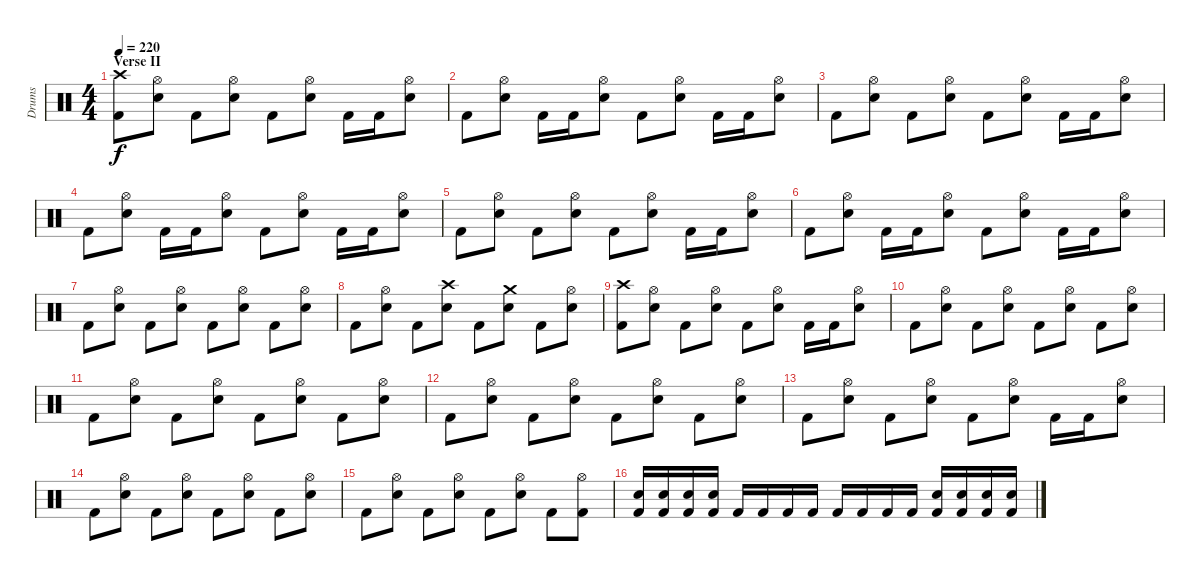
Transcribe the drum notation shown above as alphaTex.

\track ("Drums" "Drums") {instrument percussion}
\staff {score}
\articulation defaults
\ts (4 4)
\section ("" "Verse II")
\tempo 220
\clef neutral
\ks c
("Crash high (hit)" "Kick (hit) 2").8{dy f} ("Hi-Hat (open)" "Snare (hit) 2").8 "Kick (hit) 2".8 ("Hi-Hat (open)" "Snare (hit) 2").8 "Kick (hit) 2".8 ("Hi-Hat (open)" "Snare (hit) 2").8 "Kick (hit) 2".16 "Kick (hit) 2".16 ("Hi-Hat (open)" "Snare (hit) 2").8 |
"Kick (hit) 2".8 ("Hi-Hat (open)" "Snare (hit) 2").8 "Kick (hit) 2".16 "Kick (hit) 2".16 ("Hi-Hat (open)" "Snare (hit) 2").8 "Kick (hit) 2".8 ("Hi-Hat (open)" "Snare (hit) 2").8 "Kick (hit) 2".16 "Kick (hit) 2".16 ("Hi-Hat (open)" "Snare (hit) 2").8 |
"Kick (hit) 2".8 ("Hi-Hat (open)" "Snare (hit) 2").8 "Kick (hit) 2".8 ("Hi-Hat (open)" "Snare (hit) 2").8 "Kick (hit) 2".8 ("Hi-Hat (open)" "Snare (hit) 2").8 "Kick (hit) 2".16 "Kick (hit) 2".16 ("Hi-Hat (open)" "Snare (hit) 2").8 |
"Kick (hit) 2".8 ("Hi-Hat (open)" "Snare (hit) 2").8 "Kick (hit) 2".16 "Kick (hit) 2".16 ("Hi-Hat (open)" "Snare (hit) 2").8 "Kick (hit) 2".8 ("Hi-Hat (open)" "Snare (hit) 2").8 "Kick (hit) 2".16 "Kick (hit) 2".16 ("Hi-Hat (open)" "Snare (hit) 2").8 |
"Kick (hit) 2".8 ("Hi-Hat (open)" "Snare (hit) 2").8 "Kick (hit) 2".8 ("Hi-Hat (open)" "Snare (hit) 2").8 "Kick (hit) 2".8 ("Hi-Hat (open)" "Snare (hit) 2").8 "Kick (hit) 2".16 "Kick (hit) 2".16 ("Hi-Hat (open)" "Snare (hit) 2").8 |
"Kick (hit) 2".8 ("Hi-Hat (open)" "Snare (hit) 2").8 "Kick (hit) 2".16 "Kick (hit) 2".16 ("Hi-Hat (open)" "Snare (hit) 2").8 "Kick (hit) 2".8 ("Hi-Hat (open)" "Snare (hit) 2").8 "Kick (hit) 2".16 "Kick (hit) 2".16 ("Hi-Hat (open)" "Snare (hit) 2").8 |
"Kick (hit) 2".8 ("Hi-Hat (open)" "Snare (hit) 2").8 "Kick (hit) 2".8 ("Hi-Hat (open)" "Snare (hit) 2").8 "Kick (hit) 2".8 ("Hi-Hat (open)" "Snare (hit) 2").8 "Kick (hit) 2".8 ("Hi-Hat (open)" "Snare (hit) 2").8 |
"Kick (hit) 2".8 ("Hi-Hat (open)" "Snare (hit) 2").8 "Kick (hit) 2".8 ("Crash high (hit)" "Snare (hit) 2").8 "Kick (hit) 2".8 ("Crash medium (hit)" "Snare (hit) 2").8 "Kick (hit) 2".8 ("Hi-Hat (open)" "Snare (hit) 2").8 |
("Crash high (hit)" "Kick (hit) 2").8 ("Hi-Hat (open)" "Snare (hit) 2").8 "Kick (hit) 2".8 ("Hi-Hat (open)" "Snare (hit) 2").8 "Kick (hit) 2".8 ("Hi-Hat (open)" "Snare (hit) 2").8 "Kick (hit) 2".16 "Kick (hit) 2".16 ("Hi-Hat (open)" "Snare (hit) 2").8 |
"Kick (hit) 2".8 ("Hi-Hat (open)" "Snare (hit) 2").8 "Kick (hit) 2".8 ("Hi-Hat (open)" "Snare (hit) 2").8 "Kick (hit) 2".8 ("Hi-Hat (open)" "Snare (hit) 2").8 "Kick (hit) 2".8 ("Hi-Hat (open)" "Snare (hit) 2").8 |
"Kick (hit) 2".8 ("Hi-Hat (open)" "Snare (hit) 2").8 "Kick (hit) 2".8 ("Hi-Hat (open)" "Snare (hit) 2").8 "Kick (hit) 2".8 ("Hi-Hat (open)" "Snare (hit) 2").8 "Kick (hit) 2".8 ("Hi-Hat (open)" "Snare (hit) 2").8 |
"Kick (hit) 2".8 ("Hi-Hat (open)" "Snare (hit) 2").8 "Kick (hit) 2".8 ("Hi-Hat (open)" "Snare (hit) 2").8 "Kick (hit) 2".8 ("Hi-Hat (open)" "Snare (hit) 2").8 "Kick (hit) 2".8 ("Hi-Hat (open)" "Snare (hit) 2").8 |
"Kick (hit) 2".8 ("Hi-Hat (open)" "Snare (hit) 2").8 "Kick (hit) 2".8 ("Hi-Hat (open)" "Snare (hit) 2").8 "Kick (hit) 2".8 ("Hi-Hat (open)" "Snare (hit) 2").8 "Kick (hit) 2".16 "Kick (hit) 2".16 ("Hi-Hat (open)" "Snare (hit) 2").8 |
"Kick (hit) 2".8 ("Hi-Hat (open)" "Snare (hit) 2").8 "Kick (hit) 2".8 ("Hi-Hat (open)" "Snare (hit) 2").8 "Kick (hit) 2".8 ("Hi-Hat (open)" "Snare (hit) 2").8 "Kick (hit) 2".8 ("Hi-Hat (open)" "Snare (hit) 2").8 |
"Kick (hit) 2".8 ("Hi-Hat (open)" "Snare (hit) 2").8 "Kick (hit) 2".8 ("Hi-Hat (open)" "Snare (hit) 2").8 "Kick (hit) 2".8 ("Hi-Hat (open)" "Snare (hit) 2").8 "Kick (hit) 2".8 ("Hi-Hat (open)" "Kick (hit) 2").8 |
("Snare (hit) 2" "Kick (hit) 2").16 ("Snare (hit) 2" "Kick (hit) 2").16 ("Snare (hit) 2" "Kick (hit) 2").16 ("Snare (hit) 2" "Kick (hit) 2").16 "Kick (hit) 2".16 "Kick (hit) 2".16 "Kick (hit) 2".16 "Kick (hit) 2".16 "Kick (hit) 2".16 "Kick (hit) 2".16 "Kick (hit) 2".16 "Kick (hit) 2".16 ("Snare (hit) 2" "Kick (hit) 2").16 ("Snare (hit) 2" "Kick (hit) 2").16 ("Snare (hit) 2" "Kick (hit) 2").16 ("Snare (hit) 2" "Kick (hit) 2").16
